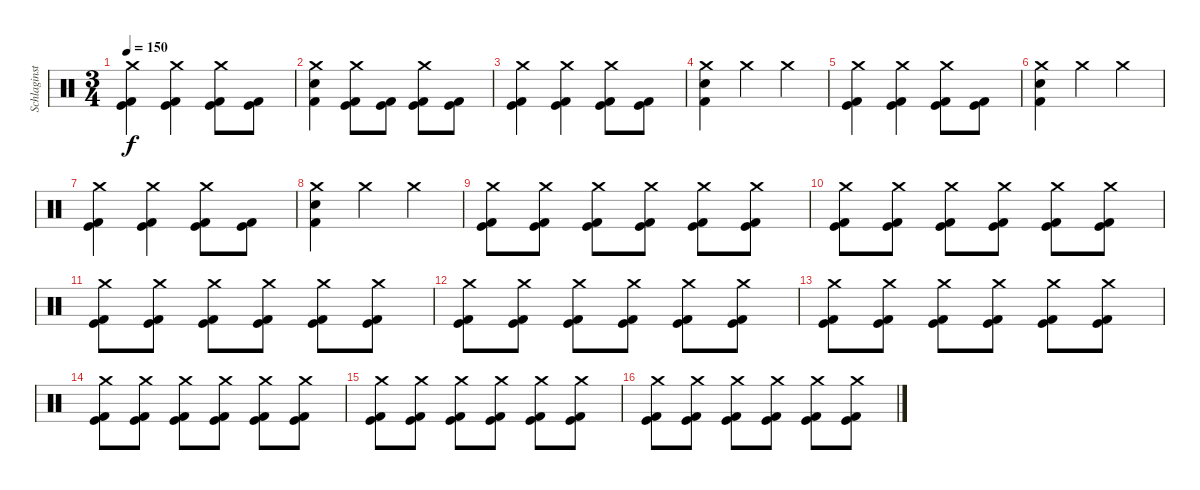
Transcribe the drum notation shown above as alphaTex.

\track ("Schlaginstrumente - Auswahl" "Schlaginst") {instrument percussion}
\staff {score}
\articulation defaults
\ts (3 4)
\tempo 150
\clef neutral
\ks c
("Crash medium (hit)" "Kick (hit)" "Kick (hit) 2").4{dy f} ("Crash medium (hit)" "Kick (hit)" "Kick (hit) 2").4 ("Crash medium (hit)" "Kick (hit)" "Kick (hit) 2").8 ("Kick (hit)" "Kick (hit) 2").8 |
("Crash medium (hit)" "Electric Snare (hit)" "Kick (hit) 2").4 ("Crash medium (hit)" "Kick (hit)" "Kick (hit) 2").8 ("Kick (hit)" "Kick (hit) 2").8 ("Crash medium (hit)" "Kick (hit)" "Kick (hit) 2").8 ("Kick (hit)" "Kick (hit) 2").8 |
("Crash medium (hit)" "Kick (hit)" "Kick (hit) 2").4 ("Crash medium (hit)" "Kick (hit)" "Kick (hit) 2").4 ("Crash medium (hit)" "Kick (hit)" "Kick (hit) 2").8 ("Kick (hit)" "Kick (hit) 2").8 |
("Crash medium (hit)" "Electric Snare (hit)" "Kick (hit) 2").4 "Crash medium (hit)".4 "Crash medium (hit)".4 |
("Crash medium (hit)" "Kick (hit)" "Kick (hit) 2").4 ("Crash medium (hit)" "Kick (hit)" "Kick (hit) 2").4 ("Crash medium (hit)" "Kick (hit)" "Kick (hit) 2").8 ("Kick (hit)" "Kick (hit) 2").8 |
("Crash medium (hit)" "Electric Snare (hit)" "Kick (hit) 2").4 "Crash medium (hit)".4 "Crash medium (hit)".4 |
("Crash medium (hit)" "Kick (hit)" "Kick (hit) 2").4 ("Crash medium (hit)" "Kick (hit)" "Kick (hit) 2").4 ("Crash medium (hit)" "Kick (hit)" "Kick (hit) 2").8 ("Kick (hit)" "Kick (hit) 2").8 |
("Crash medium (hit)" "Electric Snare (hit)" "Kick (hit) 2").4 "Crash medium (hit)".4 "Crash medium (hit)".4 |
("Crash medium (hit)" "Kick (hit)" "Kick (hit) 2").8 ("Crash medium (hit)" "Kick (hit)" "Kick (hit) 2").8 ("Crash medium (hit)" "Kick (hit)" "Kick (hit) 2").8 ("Crash medium (hit)" "Kick (hit)" "Kick (hit) 2").8 ("Crash medium (hit)" "Kick (hit)" "Kick (hit) 2").8 ("Crash medium (hit)" "Kick (hit)" "Kick (hit) 2").8 |
("Crash medium (hit)" "Kick (hit)" "Kick (hit) 2").8 ("Crash medium (hit)" "Kick (hit)" "Kick (hit) 2").8 ("Crash medium (hit)" "Kick (hit)" "Kick (hit) 2").8 ("Crash medium (hit)" "Kick (hit)" "Kick (hit) 2").8 ("Crash medium (hit)" "Kick (hit)" "Kick (hit) 2").8 ("Crash medium (hit)" "Kick (hit)" "Kick (hit) 2").8 |
("Crash medium (hit)" "Kick (hit)" "Kick (hit) 2").8 ("Crash medium (hit)" "Kick (hit)" "Kick (hit) 2").8 ("Crash medium (hit)" "Kick (hit)" "Kick (hit) 2").8 ("Crash medium (hit)" "Kick (hit)" "Kick (hit) 2").8 ("Crash medium (hit)" "Kick (hit)" "Kick (hit) 2").8 ("Crash medium (hit)" "Kick (hit)" "Kick (hit) 2").8 |
("Crash medium (hit)" "Kick (hit)" "Kick (hit) 2").8 ("Crash medium (hit)" "Kick (hit)" "Kick (hit) 2").8 ("Crash medium (hit)" "Kick (hit)" "Kick (hit) 2").8 ("Crash medium (hit)" "Kick (hit)" "Kick (hit) 2").8 ("Crash medium (hit)" "Kick (hit)" "Kick (hit) 2").8 ("Crash medium (hit)" "Kick (hit)" "Kick (hit) 2").8 |
("Crash medium (hit)" "Kick (hit)" "Kick (hit) 2").8 ("Crash medium (hit)" "Kick (hit)" "Kick (hit) 2").8 ("Crash medium (hit)" "Kick (hit)" "Kick (hit) 2").8 ("Crash medium (hit)" "Kick (hit)" "Kick (hit) 2").8 ("Crash medium (hit)" "Kick (hit)" "Kick (hit) 2").8 ("Crash medium (hit)" "Kick (hit)" "Kick (hit) 2").8 |
("Crash medium (hit)" "Kick (hit)" "Kick (hit) 2").8 ("Crash medium (hit)" "Kick (hit)" "Kick (hit) 2").8 ("Crash medium (hit)" "Kick (hit)" "Kick (hit) 2").8 ("Crash medium (hit)" "Kick (hit)" "Kick (hit) 2").8 ("Crash medium (hit)" "Kick (hit)" "Kick (hit) 2").8 ("Crash medium (hit)" "Kick (hit)" "Kick (hit) 2").8 |
("Crash medium (hit)" "Kick (hit)" "Kick (hit) 2").8 ("Crash medium (hit)" "Kick (hit)" "Kick (hit) 2").8 ("Crash medium (hit)" "Kick (hit)" "Kick (hit) 2").8 ("Crash medium (hit)" "Kick (hit)" "Kick (hit) 2").8 ("Crash medium (hit)" "Kick (hit)" "Kick (hit) 2").8 ("Crash medium (hit)" "Kick (hit)" "Kick (hit) 2").8 |
("Crash medium (hit)" "Kick (hit)" "Kick (hit) 2").8 ("Crash medium (hit)" "Kick (hit)" "Kick (hit) 2").8 ("Crash medium (hit)" "Kick (hit)" "Kick (hit) 2").8 ("Crash medium (hit)" "Kick (hit)" "Kick (hit) 2").8 ("Crash medium (hit)" "Kick (hit)" "Kick (hit) 2").8 ("Crash medium (hit)" "Kick (hit)" "Kick (hit) 2").8
